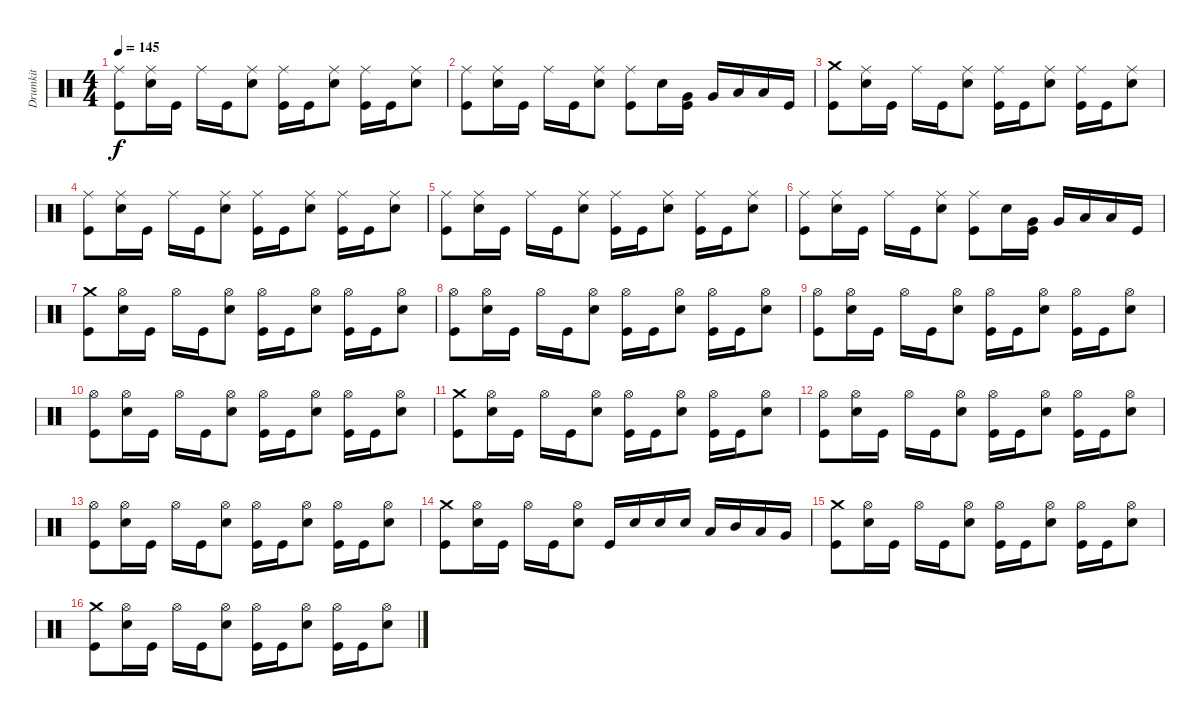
\track ("Drumkit" "Drumkit") {instrument percussion}
\staff {score}
\articulation defaults
\ts (4 4)
\tempo 145
\clef neutral
\ks c
("Kick (hit)" "Ride (middle)").8{dy f} ("Snare (hit) 2" "Ride (middle)").16 "Kick (hit)".16 "Ride (middle)".16 "Kick (hit)".16 ("Snare (hit) 2" "Ride (middle)").8 ("Kick (hit)" "Ride (middle)").16 "Kick (hit)".16 ("Snare (hit) 2" "Ride (middle)").8 ("Kick (hit)" "Ride (middle)").16 "Kick (hit)".16 ("Snare (hit) 2" "Ride (middle)").8 |
("Kick (hit)" "Ride (middle)").8 ("Snare (hit) 2" "Ride (middle)").16 "Kick (hit)".16 "Ride (middle)".16 "Kick (hit)".16 ("Snare (hit) 2" "Ride (middle)").8 ("Kick (hit)" "Ride (middle)").8 "Snare (hit) 2".16 ("Kick (hit)" "Very Low Tom (hit)").16 "Very Low Tom (hit)".16 "Low Tom (hit)".16 "Low Floor Tom (hit)".16 "Kick (hit)".16 |
("Kick (hit)" "Crash medium (hit)").8 ("Snare (hit) 2" "Ride (middle)").16 "Kick (hit)".16 "Ride (middle)".16 "Kick (hit)".16 ("Snare (hit) 2" "Ride (middle)").8 ("Kick (hit)" "Ride (middle)").16 "Kick (hit)".16 ("Snare (hit) 2" "Ride (middle)").8 ("Kick (hit)" "Ride (middle)").16 "Kick (hit)".16 ("Snare (hit) 2" "Ride (middle)").8 |
("Kick (hit)" "Ride (middle)").8 ("Snare (hit) 2" "Ride (middle)").16 "Kick (hit)".16 "Ride (middle)".16 "Kick (hit)".16 ("Snare (hit) 2" "Ride (middle)").8 ("Kick (hit)" "Ride (middle)").16 "Kick (hit)".16 ("Snare (hit) 2" "Ride (middle)").8 ("Kick (hit)" "Ride (middle)").16 "Kick (hit)".16 ("Snare (hit) 2" "Ride (middle)").8 |
("Kick (hit)" "Ride (middle)").8 ("Snare (hit) 2" "Ride (middle)").16 "Kick (hit)".16 "Ride (middle)".16 "Kick (hit)".16 ("Snare (hit) 2" "Ride (middle)").8 ("Kick (hit)" "Ride (middle)").16 "Kick (hit)".16 ("Snare (hit) 2" "Ride (middle)").8 ("Kick (hit)" "Ride (middle)").16 "Kick (hit)".16 ("Snare (hit) 2" "Ride (middle)").8 |
("Kick (hit)" "Ride (middle)").8 ("Snare (hit) 2" "Ride (middle)").16 "Kick (hit)".16 "Ride (middle)".16 "Kick (hit)".16 ("Snare (hit) 2" "Ride (middle)").8 ("Kick (hit)" "Ride (middle)").8 "Snare (hit) 2".16 ("Kick (hit)" "Very Low Tom (hit)").16 "Very Low Tom (hit)".16 "Low Tom (hit)".16 "Low Floor Tom (hit)".16 "Kick (hit)".16 |
("Kick (hit)" "Crash medium (hit)").8 ("Snare (hit) 2" "Hi-Hat (open)").16 "Kick (hit)".16 "Hi-Hat (open)".16 "Kick (hit)".16 ("Snare (hit) 2" "Hi-Hat (open)").8 ("Hi-Hat (open)" "Kick (hit)").16 "Kick (hit)".16 ("Snare (hit) 2" "Hi-Hat (open)").8 ("Hi-Hat (open)" "Kick (hit)").16 "Kick (hit)".16 ("Snare (hit) 2" "Hi-Hat (open)").8 |
("Kick (hit)" "Hi-Hat (open)").8 ("Snare (hit) 2" "Hi-Hat (open)").16 "Kick (hit)".16 "Hi-Hat (open)".16 "Kick (hit)".16 ("Snare (hit) 2" "Hi-Hat (open)").8 ("Hi-Hat (open)" "Kick (hit)").16 "Kick (hit)".16 ("Snare (hit) 2" "Hi-Hat (open)").8 ("Hi-Hat (open)" "Kick (hit)").16 "Kick (hit)".16 ("Snare (hit) 2" "Hi-Hat (open)").8 |
("Kick (hit)" "Hi-Hat (open)").8 ("Snare (hit) 2" "Hi-Hat (open)").16 "Kick (hit)".16 "Hi-Hat (open)".16 "Kick (hit)".16 ("Snare (hit) 2" "Hi-Hat (open)").8 ("Hi-Hat (open)" "Kick (hit)").16 "Kick (hit)".16 ("Snare (hit) 2" "Hi-Hat (open)").8 ("Hi-Hat (open)" "Kick (hit)").16 "Kick (hit)".16 ("Snare (hit) 2" "Hi-Hat (open)").8 |
("Kick (hit)" "Hi-Hat (open)").8 ("Snare (hit) 2" "Hi-Hat (open)").16 "Kick (hit)".16 "Hi-Hat (open)".16 "Kick (hit)".16 ("Snare (hit) 2" "Hi-Hat (open)").8 ("Hi-Hat (open)" "Kick (hit)").16 "Kick (hit)".16 ("Snare (hit) 2" "Hi-Hat (open)").8 ("Hi-Hat (open)" "Kick (hit)").16 "Kick (hit)".16 ("Snare (hit) 2" "Hi-Hat (open)").8 |
("Kick (hit)" "Crash medium (hit)").8 ("Snare (hit) 2" "Hi-Hat (open)").16 "Kick (hit)".16 "Hi-Hat (open)".16 "Kick (hit)".16 ("Snare (hit) 2" "Hi-Hat (open)").8 ("Hi-Hat (open)" "Kick (hit)").16 "Kick (hit)".16 ("Snare (hit) 2" "Hi-Hat (open)").8 ("Hi-Hat (open)" "Kick (hit)").16 "Kick (hit)".16 ("Snare (hit) 2" "Hi-Hat (open)").8 |
("Kick (hit)" "Hi-Hat (open)").8 ("Snare (hit) 2" "Hi-Hat (open)").16 "Kick (hit)".16 "Hi-Hat (open)".16 "Kick (hit)".16 ("Snare (hit) 2" "Hi-Hat (open)").8 ("Hi-Hat (open)" "Kick (hit)").16 "Kick (hit)".16 ("Snare (hit) 2" "Hi-Hat (open)").8 ("Hi-Hat (open)" "Kick (hit)").16 "Kick (hit)".16 ("Snare (hit) 2" "Hi-Hat (open)").8 |
("Kick (hit)" "Hi-Hat (open)").8 ("Snare (hit) 2" "Hi-Hat (open)").16 "Kick (hit)".16 "Hi-Hat (open)".16 "Kick (hit)".16 ("Snare (hit) 2" "Hi-Hat (open)").8 ("Hi-Hat (open)" "Kick (hit)").16 "Kick (hit)".16 ("Snare (hit) 2" "Hi-Hat (open)").8 ("Hi-Hat (open)" "Kick (hit)").16 "Kick (hit)".16 ("Snare (hit) 2" "Hi-Hat (open)").8 |
("Kick (hit)" "Crash medium (hit)").8 ("Snare (hit) 2" "Hi-Hat (open)").16 "Kick (hit)".16 "Hi-Hat (open)".16 "Kick (hit)".16 ("Snare (hit) 2" "Hi-Hat (open)").8 "Kick (hit)".16 "Snare (hit) 2".16 "Snare (hit) 2".16 "Snare (hit) 2".16 "Low Tom (hit)".16 "Mid Tom (hit)".16 "Low Tom (hit)".16 "Very Low Tom (hit)".16 |
("Kick (hit)" "Crash medium (hit)").8 ("Snare (hit) 2" "Hi-Hat (open)").16 "Kick (hit)".16 "Hi-Hat (open)".16 "Kick (hit)".16 ("Snare (hit) 2" "Hi-Hat (open)").8 ("Hi-Hat (open)" "Kick (hit)").16 "Kick (hit)".16 ("Snare (hit) 2" "Hi-Hat (open)").8 ("Hi-Hat (open)" "Kick (hit)").16 "Kick (hit)".16 ("Snare (hit) 2" "Hi-Hat (open)").8 |
("Kick (hit)" "Crash medium (hit)").8 ("Snare (hit) 2" "Hi-Hat (open)").16 "Kick (hit)".16 "Hi-Hat (open)".16 "Kick (hit)".16 ("Snare (hit) 2" "Hi-Hat (open)").8 ("Hi-Hat (open)" "Kick (hit)").16 "Kick (hit)".16 ("Snare (hit) 2" "Hi-Hat (open)").8 ("Hi-Hat (open)" "Kick (hit)").16 "Kick (hit)".16 ("Snare (hit) 2" "Hi-Hat (open)").8
